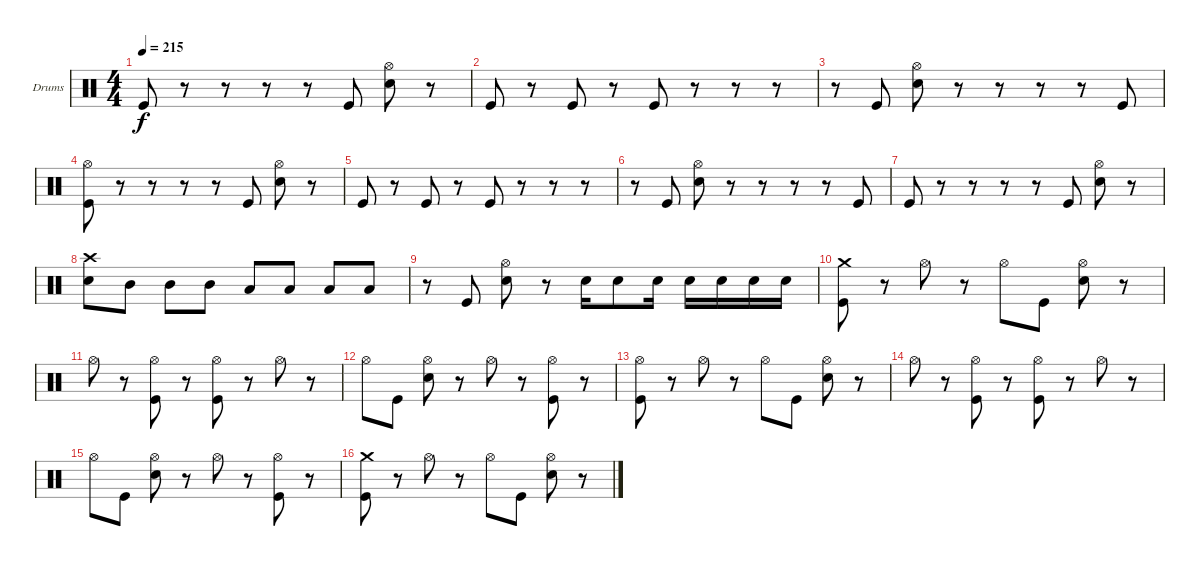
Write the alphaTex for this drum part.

\bracketExtendMode groupsimilarinstruments
\firstSystemTrackNameOrientation horizontal
\otherSystemsTrackNameOrientation horizontal
\track ("Drumkit (Christoph)" "Drums") {instrument percussion}
\staff {score}
\articulation defaults
\ts (4 4)
\tempo 215
\clef neutral
\ks c "Kick (hit)".8{dy f}
r.8 r.8 r.8 r.8 "Kick (hit)".8 ("Hi-Hat (open)" "Snare (hit) 2").8 r.8 |
"Kick (hit)".8 r.8 "Kick (hit)".8 r.8 "Kick (hit)".8 r.8 r.8 r.8 |
r.8 "Kick (hit)".8 ("Hi-Hat (open)" "Snare (hit) 2").8 r.8 r.8 r.8 r.8 "Kick (hit)".8 |
("Hi-Hat (open)" "Kick (hit)").8 r.8 r.8 r.8 r.8 "Kick (hit)".8 ("Hi-Hat (open)" "Snare (hit) 2").8 r.8 |
"Kick (hit)".8 r.8 "Kick (hit)".8 r.8 "Kick (hit)".8 r.8 r.8 r.8 |
r.8 "Kick (hit)".8 ("Hi-Hat (open)" "Snare (hit) 2").8 r.8 r.8 r.8 r.8 "Kick (hit)".8 |
"Kick (hit)".8 r.8 r.8 r.8 r.8 "Kick (hit)".8 ("Hi-Hat (open)" "Snare (hit) 2").8 r.8 |
("Crash high (hit)" "Snare (hit) 2").8 "Mid Tom (hit)".8 "Mid Tom (hit)".8 "Mid Tom (hit)".8 "Low Tom (hit)".8 "Low Tom (hit)".8 "Low Tom (hit)".8 "Low Tom (hit)".8 |
r.8 "Kick (hit)".8 ("Hi-Hat (open)" "Snare (hit) 2").8 r.8 "Snare (hit) 2".16 "Snare (hit) 2".8 "Snare (hit) 2".16 "Snare (hit) 2".16 "Snare (hit) 2".16 "Snare (hit) 2".16 "Snare (hit) 2".16 |
("Crash medium (hit)" "Kick (hit)").8 r.8 "Hi-Hat (open)".8 r.8 "Hi-Hat (open)".8 "Kick (hit)".8 ("Hi-Hat (open)" "Snare (hit) 2").8 r.8 |
"Hi-Hat (open)".8 r.8 ("Hi-Hat (open)" "Kick (hit)").8 r.8 ("Hi-Hat (open)" "Kick (hit)").8 r.8 "Hi-Hat (open)".8 r.8 |
"Hi-Hat (open)".8 "Kick (hit)".8 ("Hi-Hat (open)" "Snare (hit) 2").8 r.8 "Hi-Hat (open)".8 r.8 ("Hi-Hat (open)" "Kick (hit)").8 r.8 |
("Hi-Hat (open)" "Kick (hit)").8 r.8 "Hi-Hat (open)".8 r.8 "Hi-Hat (open)".8 "Kick (hit)".8 ("Hi-Hat (open)" "Snare (hit) 2").8 r.8 |
"Hi-Hat (open)".8 r.8 ("Hi-Hat (open)" "Kick (hit)").8 r.8 ("Hi-Hat (open)" "Kick (hit)").8 r.8 "Hi-Hat (open)".8 r.8 |
"Hi-Hat (open)".8 "Kick (hit)".8 ("Hi-Hat (open)" "Snare (hit) 2").8 r.8 "Hi-Hat (open)".8 r.8 ("Hi-Hat (open)" "Kick (hit)").8 r.8 |
("Crash medium (hit)" "Kick (hit)").8 r.8 "Hi-Hat (open)".8 r.8 "Hi-Hat (open)".8 "Kick (hit)".8 ("Hi-Hat (open)" "Snare (hit) 2").8 r.8
